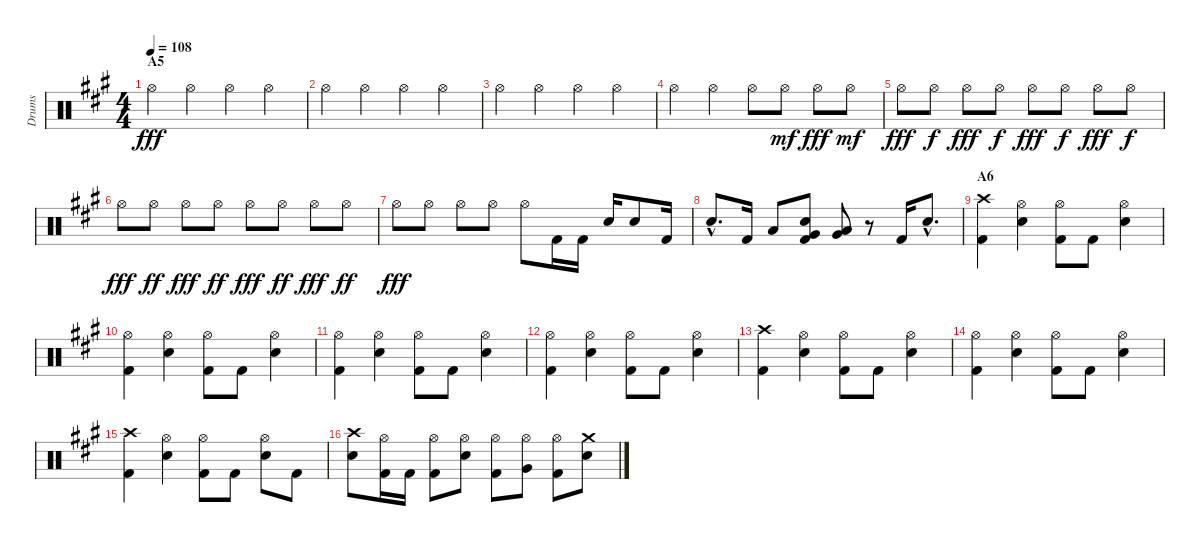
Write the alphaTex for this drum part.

\track ("Drums" "Drums") {instrument percussion}
\staff {score}
\articulation defaults
\ts (4 4)
\section ("" "A5")
\tempo 108
\clef neutral
\ks a "Hi-Hat (open)".4{dy fff} "Hi-Hat (open)".4 "Hi-Hat (open)".4 "Hi-Hat (open)".4
|
"Hi-Hat (open)".4 "Hi-Hat (open)".4 "Hi-Hat (open)".4 "Hi-Hat (open)".4 |
"Hi-Hat (open)".4 "Hi-Hat (open)".4 "Hi-Hat (open)".4 "Hi-Hat (open)".4 |
"Hi-Hat (open)".4 "Hi-Hat (open)".4 "Hi-Hat (open)".8 "Hi-Hat (open)".8{dy mf} "Hi-Hat (open)".8{dy fff} "Hi-Hat (open)".8{dy mf} |
"Hi-Hat (open)".8{dy fff} "Hi-Hat (open)".8{dy f} "Hi-Hat (open)".8{dy fff} "Hi-Hat (open)".8{dy f} "Hi-Hat (open)".8{dy fff} "Hi-Hat (open)".8{dy f} "Hi-Hat (open)".8{dy fff} "Hi-Hat (open)".8{dy f} |
"Hi-Hat (open)".8{dy fff} "Hi-Hat (open)".8{dy ff} "Hi-Hat (open)".8{dy fff} "Hi-Hat (open)".8{dy ff} "Hi-Hat (open)".8{dy fff} "Hi-Hat (open)".8{dy ff} "Hi-Hat (open)".8{dy fff} "Hi-Hat (open)".8{dy ff} |
"Hi-Hat (open)".8{dy fff} "Hi-Hat (open)".8 "Hi-Hat (open)".8 "Hi-Hat (open)".8 "Hi-Hat (open)".8 "Kick (hit) 2".16 "Kick (hit) 2".16 "Electric Snare (hit)".16 "Electric Snare (hit)".8 "Kick (hit) 2".16 |
"Electric Snare (hit)"{hac}.8{d} "Kick (hit) 2".16 "Low Tom (hit)".8 ("Very Low Tom (hit)" "Electric Snare (hit)" "Kick (hit) 2").8 ("Low Tom (hit)" "Very Low Tom (hit)").8 r.8 "Kick (hit) 2".16 "Electric Snare (hit)"{hac}.8{d} |
\section ("" "A6")
("Crash high (hit)" "Kick (hit) 2").4 ("Hi-Hat (open)" "Electric Snare (hit)").4 ("Hi-Hat (open)" "Kick (hit) 2").8 "Kick (hit) 2".8 ("Hi-Hat (open)" "Electric Snare (hit)").4 |
("Hi-Hat (open)" "Kick (hit) 2").4 ("Hi-Hat (open)" "Electric Snare (hit)").4 ("Hi-Hat (open)" "Kick (hit) 2").8 "Kick (hit) 2".8 ("Hi-Hat (open)" "Electric Snare (hit)").4 |
("Hi-Hat (open)" "Kick (hit) 2").4 ("Hi-Hat (open)" "Electric Snare (hit)").4 ("Hi-Hat (open)" "Kick (hit) 2").8 "Kick (hit) 2".8 ("Hi-Hat (open)" "Electric Snare (hit)").4 |
("Hi-Hat (open)" "Kick (hit) 2").4 ("Hi-Hat (open)" "Electric Snare (hit)").4 ("Hi-Hat (open)" "Kick (hit) 2").8 "Kick (hit) 2".8 ("Hi-Hat (open)" "Electric Snare (hit)").4 |
("Crash high (hit)" "Kick (hit) 2").4 ("Hi-Hat (open)" "Electric Snare (hit)").4 ("Hi-Hat (open)" "Kick (hit) 2").8 "Kick (hit) 2".8 ("Hi-Hat (open)" "Electric Snare (hit)").4 |
("Hi-Hat (open)" "Kick (hit) 2").4 ("Hi-Hat (open)" "Electric Snare (hit)").4 ("Hi-Hat (open)" "Kick (hit) 2").8 "Kick (hit) 2".8 ("Hi-Hat (open)" "Electric Snare (hit)").4 |
("Crash high (hit)" "Kick (hit) 2").4 ("Hi-Hat (open)" "Electric Snare (hit)").4 ("Hi-Hat (open)" "Kick (hit) 2").8 "Kick (hit) 2".8 ("Hi-Hat (open)" "Electric Snare (hit)").8 "Kick (hit) 2".8 |
("Crash high (hit)" "Electric Snare (hit)").8 ("Hi-Hat (open)" "Kick (hit) 2").16 "Kick (hit) 2".16 ("Hi-Hat (open)" "Kick (hit) 2").8 ("Hi-Hat (open)" "Electric Snare (hit)").8 ("Hi-Hat (open)" "Kick (hit) 2").8 ("Hi-Hat (open)" "Very Low Tom (hit)").8 ("Hi-Hat (open)" "Kick (hit) 2").8 ("Crash medium (hit)" "Electric Snare (hit)").8
